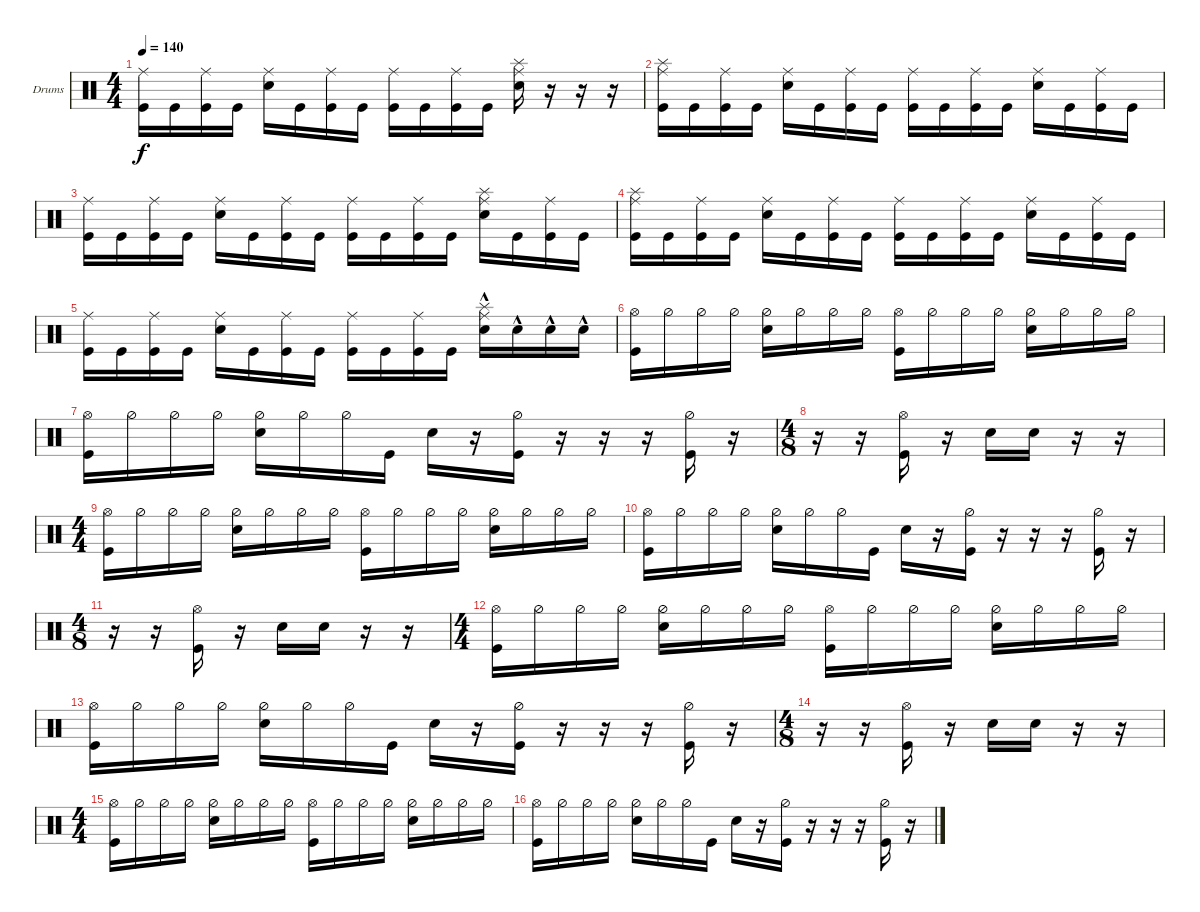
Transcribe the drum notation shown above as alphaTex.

\bracketExtendMode groupsimilarinstruments
\firstSystemTrackNameOrientation horizontal
\otherSystemsTrackNameOrientation horizontal
\track ("Drumkit" "Drums") {instrument percussion}
\staff {score}
\articulation defaults
\ts (4 4)
\tempo 140
\clef neutral
\ks c
("Kick (hit)" "Ride (middle)").16{dy f} "Kick (hit)".16 ("Kick (hit)" "Ride (middle)").16 "Kick (hit)".16 ("Snare (hit) 2" "Ride (middle)").16 "Kick (hit)".16 ("Kick (hit)" "Ride (middle)").16 "Kick (hit)".16 ("Kick (hit)" "Ride (middle)").16 "Kick (hit)".16 ("Kick (hit)" "Ride (middle)").16 "Kick (hit)".16 ("Snare (hit) 2" "Ride (middle)" "Splash (hit)").16 r.16 r.16 r.16 |
("Kick (hit)" "Ride (middle)" "Splash (hit)").16 "Kick (hit)".16 ("Kick (hit)" "Ride (middle)").16 "Kick (hit)".16 ("Snare (hit) 2" "Ride (middle)").16 "Kick (hit)".16 ("Kick (hit)" "Ride (middle)").16 "Kick (hit)".16 ("Kick (hit)" "Ride (middle)").16 "Kick (hit)".16 ("Kick (hit)" "Ride (middle)").16 "Kick (hit)".16 ("Snare (hit) 2" "Ride (middle)").16 "Kick (hit)".16 ("Kick (hit)" "Ride (middle)").16 "Kick (hit)".16 |
("Kick (hit)" "Ride (middle)").16 "Kick (hit)".16 ("Kick (hit)" "Ride (middle)").16 "Kick (hit)".16 ("Snare (hit) 2" "Ride (middle)").16 "Kick (hit)".16 ("Kick (hit)" "Ride (middle)").16 "Kick (hit)".16 ("Kick (hit)" "Ride (middle)").16 "Kick (hit)".16 ("Kick (hit)" "Ride (middle)").16 "Kick (hit)".16 ("Snare (hit) 2" "Ride (middle)" "Splash (hit)").16 "Kick (hit)".16 ("Kick (hit)" "Ride (middle)").16 "Kick (hit)".16 |
("Kick (hit)" "Ride (middle)" "Splash (hit)").16 "Kick (hit)".16 ("Kick (hit)" "Ride (middle)").16 "Kick (hit)".16 ("Snare (hit) 2" "Ride (middle)").16 "Kick (hit)".16 ("Kick (hit)" "Ride (middle)").16 "Kick (hit)".16 ("Kick (hit)" "Ride (middle)").16 "Kick (hit)".16 ("Kick (hit)" "Ride (middle)").16 "Kick (hit)".16 ("Snare (hit) 2" "Ride (middle)").16 "Kick (hit)".16 ("Kick (hit)" "Ride (middle)").16 "Kick (hit)".16 |
("Kick (hit)" "Ride (middle)").16 "Kick (hit)".16 ("Kick (hit)" "Ride (middle)").16 "Kick (hit)".16 ("Snare (hit) 2" "Ride (middle)").16 "Kick (hit)".16 ("Kick (hit)" "Ride (middle)").16 "Kick (hit)".16 ("Kick (hit)" "Ride (middle)").16 "Kick (hit)".16 ("Kick (hit)" "Ride (middle)").16 "Kick (hit)".16 ("Snare (hit) 2"{hac} "Ride (middle)" "Splash (hit)").16 "Snare (hit) 2"{hac}.16 "Snare (hit) 2"{hac}.16 "Snare (hit) 2"{hac}.16 |
("Hi-Hat (open)" "Kick (hit)").16 "Hi-Hat (half)".16 "Hi-Hat (half)".16 "Hi-Hat (half)".16 ("Hi-Hat (half)" "Snare (hit) 2").16 "Hi-Hat (half)".16 "Hi-Hat (half)".16 "Hi-Hat (half)".16 ("Hi-Hat (open)" "Kick (hit)").16 "Hi-Hat (half)".16 "Hi-Hat (half)".16 "Hi-Hat (half)".16 ("Hi-Hat (half)" "Snare (hit) 2").16 "Hi-Hat (half)".16 "Hi-Hat (half)".16 "Hi-Hat (half)".16 |
("Hi-Hat (open)" "Kick (hit)").16 "Hi-Hat (half)".16 "Hi-Hat (half)".16 "Hi-Hat (half)".16 ("Hi-Hat (half)" "Snare (hit) 2").16 "Hi-Hat (half)".16 "Hi-Hat (half)".16 "Kick (hit)".16 "Snare (hit) 2".16 r.16 ("Kick (hit)" "Hi-Hat (half)").16 r.16 r.16 r.16 ("Kick (hit)" "Hi-Hat (half)").16 r.16 |
\ts (4 8)
r.16 r.16 ("Kick (hit)" "Hi-Hat (open)").16 r.16 "Snare (hit) 2".16 "Snare (hit) 2".16 r.16 r.16 |
\ts (4 4)
("Hi-Hat (open)" "Kick (hit)").16 "Hi-Hat (half)".16 "Hi-Hat (half)".16 "Hi-Hat (half)".16 ("Hi-Hat (half)" "Snare (hit) 2").16 "Hi-Hat (half)".16 "Hi-Hat (half)".16 "Hi-Hat (half)".16 ("Hi-Hat (open)" "Kick (hit)").16 "Hi-Hat (half)".16 "Hi-Hat (half)".16 "Hi-Hat (half)".16 ("Hi-Hat (half)" "Snare (hit) 2").16 "Hi-Hat (half)".16 "Hi-Hat (half)".16 "Hi-Hat (half)".16 |
("Hi-Hat (open)" "Kick (hit)").16 "Hi-Hat (half)".16 "Hi-Hat (half)".16 "Hi-Hat (half)".16 ("Hi-Hat (half)" "Snare (hit) 2").16 "Hi-Hat (half)".16 "Hi-Hat (half)".16 "Kick (hit)".16 "Snare (hit) 2".16 r.16 ("Kick (hit)" "Hi-Hat (half)").16 r.16 r.16 r.16 ("Kick (hit)" "Hi-Hat (half)").16 r.16 |
\ts (4 8)
r.16 r.16 ("Kick (hit)" "Hi-Hat (open)").16 r.16 "Snare (hit) 2".16 "Snare (hit) 2".16 r.16 r.16 |
\ts (4 4)
("Hi-Hat (open)" "Kick (hit)").16 "Hi-Hat (half)".16 "Hi-Hat (half)".16 "Hi-Hat (half)".16 ("Hi-Hat (half)" "Snare (hit) 2").16 "Hi-Hat (half)".16 "Hi-Hat (half)".16 "Hi-Hat (half)".16 ("Hi-Hat (open)" "Kick (hit)").16 "Hi-Hat (half)".16 "Hi-Hat (half)".16 "Hi-Hat (half)".16 ("Hi-Hat (half)" "Snare (hit) 2").16 "Hi-Hat (half)".16 "Hi-Hat (half)".16 "Hi-Hat (half)".16 |
("Hi-Hat (open)" "Kick (hit)").16 "Hi-Hat (half)".16 "Hi-Hat (half)".16 "Hi-Hat (half)".16 ("Hi-Hat (half)" "Snare (hit) 2").16 "Hi-Hat (half)".16 "Hi-Hat (half)".16 "Kick (hit)".16 "Snare (hit) 2".16 r.16 ("Kick (hit)" "Hi-Hat (half)").16 r.16 r.16 r.16 ("Kick (hit)" "Hi-Hat (half)").16 r.16 |
\ts (4 8)
r.16 r.16 ("Kick (hit)" "Hi-Hat (open)").16 r.16 "Snare (hit) 2".16 "Snare (hit) 2".16 r.16 r.16 |
\ts (4 4)
("Hi-Hat (open)" "Kick (hit)").16 "Hi-Hat (half)".16 "Hi-Hat (half)".16 "Hi-Hat (half)".16 ("Hi-Hat (half)" "Snare (hit) 2").16 "Hi-Hat (half)".16 "Hi-Hat (half)".16 "Hi-Hat (half)".16 ("Hi-Hat (open)" "Kick (hit)").16 "Hi-Hat (half)".16 "Hi-Hat (half)".16 "Hi-Hat (half)".16 ("Hi-Hat (half)" "Snare (hit) 2").16 "Hi-Hat (half)".16 "Hi-Hat (half)".16 "Hi-Hat (half)".16 |
("Hi-Hat (open)" "Kick (hit)").16 "Hi-Hat (half)".16 "Hi-Hat (half)".16 "Hi-Hat (half)".16 ("Hi-Hat (half)" "Snare (hit) 2").16 "Hi-Hat (half)".16 "Hi-Hat (half)".16 "Kick (hit)".16 "Snare (hit) 2".16 r.16 ("Kick (hit)" "Hi-Hat (half)").16 r.16 r.16 r.16 ("Kick (hit)" "Hi-Hat (half)").16 r.16
